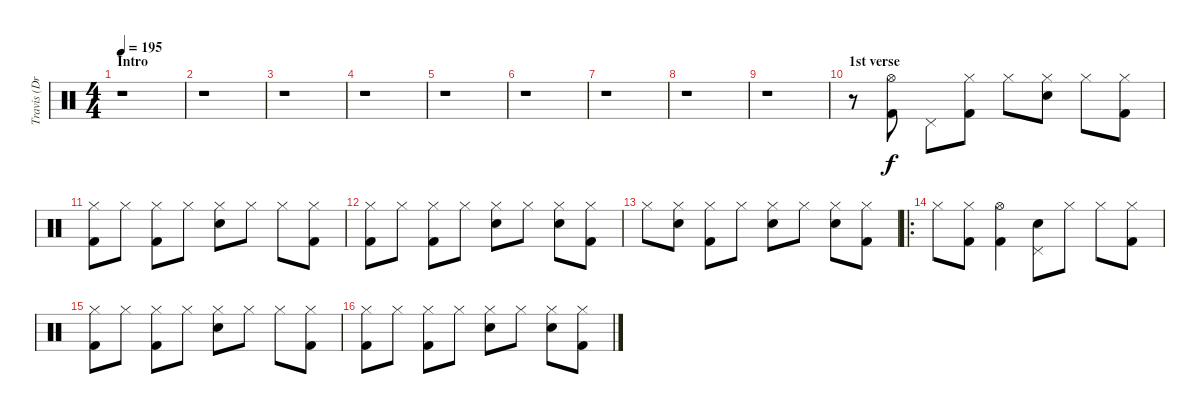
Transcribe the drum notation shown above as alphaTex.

\track ("Travis (Drums)" "Travis (Dr") {instrument percussion}
\staff {score}
\articulation defaults
\ts (4 4)
\section ("" "Intro")
\tempo 195
\clef neutral
\ks c
r.1{dy f} |
r.1 |
r.1 |
r.1 |
r.1 |
r.1 |
r.1 |
r.1 |
r.1 |
\section ("" "1st verse")
r.8 ("Hi-Hat (open)" "Kick (hit) 2").8 "Pedal Hi-Hat (hit)".8 ("Hi-Hat (closed)" "Kick (hit) 2").8 "Hi-Hat (closed)".8 ("Hi-Hat (closed)" "Electric Snare (hit)").8 "Hi-Hat (closed)".8 ("Hi-Hat (closed)" "Kick (hit) 2").8 |
("Hi-Hat (closed)" "Kick (hit) 2").8 "Hi-Hat (closed)".8 ("Hi-Hat (closed)" "Kick (hit) 2").8 "Hi-Hat (closed)".8 ("Hi-Hat (closed)" "Electric Snare (hit)").8 "Hi-Hat (closed)".8 "Hi-Hat (closed)".8 ("Hi-Hat (closed)" "Kick (hit) 2").8 |
("Hi-Hat (closed)" "Kick (hit) 2").8 "Hi-Hat (closed)".8 ("Hi-Hat (closed)" "Kick (hit) 2").8 "Hi-Hat (closed)".8 ("Hi-Hat (closed)" "Electric Snare (hit)").8 "Hi-Hat (closed)".8 ("Hi-Hat (closed)" "Electric Snare (hit)").8 ("Hi-Hat (closed)" "Kick (hit) 2").8 |
"Hi-Hat (closed)".8 ("Hi-Hat (closed)" "Electric Snare (hit)").8 ("Hi-Hat (closed)" "Kick (hit) 2").8 "Hi-Hat (closed)".8 ("Hi-Hat (closed)" "Electric Snare (hit)").8 "Hi-Hat (closed)".8 ("Hi-Hat (closed)" "Electric Snare (hit)").8 ("Hi-Hat (closed)" "Kick (hit) 2").8 |
\ro "Hi-Hat (closed)".8
("Hi-Hat (closed)" "Kick (hit) 2").8 ("Hi-Hat (open)" "Kick (hit) 2").4 ("Pedal Hi-Hat (hit)" "Electric Snare (hit)").8 "Hi-Hat (closed)".8 "Hi-Hat (closed)".8 ("Hi-Hat (closed)" "Kick (hit) 2").8 |
("Hi-Hat (closed)" "Kick (hit) 2").8 "Hi-Hat (closed)".8 ("Hi-Hat (closed)" "Kick (hit) 2").8 "Hi-Hat (closed)".8 ("Hi-Hat (closed)" "Electric Snare (hit)").8 "Hi-Hat (closed)".8 "Hi-Hat (closed)".8 ("Hi-Hat (closed)" "Kick (hit) 2").8 |
("Hi-Hat (closed)" "Kick (hit) 2").8 "Hi-Hat (closed)".8 ("Hi-Hat (closed)" "Kick (hit) 2").8 "Hi-Hat (closed)".8 ("Hi-Hat (closed)" "Electric Snare (hit)").8 "Hi-Hat (closed)".8 ("Hi-Hat (closed)" "Electric Snare (hit)").8 ("Hi-Hat (closed)" "Kick (hit) 2").8
